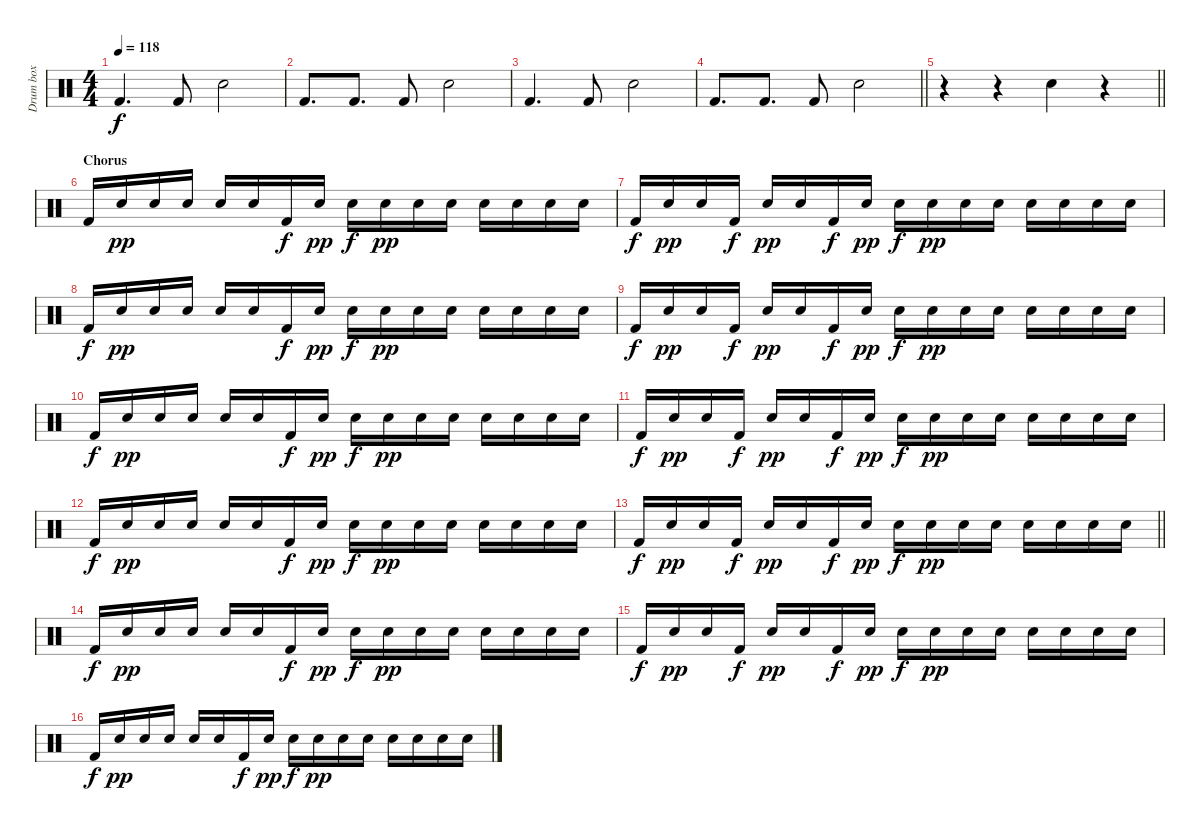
\track ("Drum box" "Drum box") {instrument percussion}
\staff {score}
\articulation defaults
\ts (4 4)
\tempo 118
\clef neutral
\ks c "Kick (hit) 2".4{d dy f} "Kick (hit) 2".8 "Snare (hit) 2".2
|
"Kick (hit) 2".8{d} "Kick (hit) 2".8{d} "Kick (hit) 2".8 "Snare (hit) 2".2 |
"Kick (hit) 2".4{d} "Kick (hit) 2".8 "Snare (hit) 2".2 |
\barLineRight lightlight "Kick (hit) 2".8{d} "Kick (hit) 2".8{d} "Kick (hit) 2".8 "Snare (hit) 2".2
|
\barLineRight lightlight
r.4 r.4 "Snare (hit) 2".4 r.4 |
\section ("" "Chorus")
"Kick (hit) 2".16 "Snare (hit) 2".16{dy pp} "Snare (hit) 2".16 "Snare (hit) 2".16 "Snare (hit) 2".16 "Snare (hit) 2".16 "Kick (hit) 2".16{dy f} "Snare (hit) 2".16{dy pp} "Snare (hit) 2".16{dy f} "Snare (hit) 2".16{dy pp} "Snare (hit) 2".16 "Snare (hit) 2".16 "Snare (hit) 2".16 "Snare (hit) 2".16 "Snare (hit) 2".16 "Snare (hit) 2".16 |
"Kick (hit) 2".16{dy f} "Snare (hit) 2".16{dy pp} "Snare (hit) 2".16 "Kick (hit) 2".16{dy f} "Snare (hit) 2".16{dy pp} "Snare (hit) 2".16 "Kick (hit) 2".16{dy f} "Snare (hit) 2".16{dy pp} "Snare (hit) 2".16{dy f} "Snare (hit) 2".16{dy pp} "Snare (hit) 2".16 "Snare (hit) 2".16 "Snare (hit) 2".16 "Snare (hit) 2".16 "Snare (hit) 2".16 "Snare (hit) 2".16 |
"Kick (hit) 2".16{dy f} "Snare (hit) 2".16{dy pp} "Snare (hit) 2".16 "Snare (hit) 2".16 "Snare (hit) 2".16 "Snare (hit) 2".16 "Kick (hit) 2".16{dy f} "Snare (hit) 2".16{dy pp} "Snare (hit) 2".16{dy f} "Snare (hit) 2".16{dy pp} "Snare (hit) 2".16 "Snare (hit) 2".16 "Snare (hit) 2".16 "Snare (hit) 2".16 "Snare (hit) 2".16 "Snare (hit) 2".16 |
"Kick (hit) 2".16{dy f} "Snare (hit) 2".16{dy pp} "Snare (hit) 2".16 "Kick (hit) 2".16{dy f} "Snare (hit) 2".16{dy pp} "Snare (hit) 2".16 "Kick (hit) 2".16{dy f} "Snare (hit) 2".16{dy pp} "Snare (hit) 2".16{dy f} "Snare (hit) 2".16{dy pp} "Snare (hit) 2".16 "Snare (hit) 2".16 "Snare (hit) 2".16 "Snare (hit) 2".16 "Snare (hit) 2".16 "Snare (hit) 2".16 |
"Kick (hit) 2".16{dy f} "Snare (hit) 2".16{dy pp} "Snare (hit) 2".16 "Snare (hit) 2".16 "Snare (hit) 2".16 "Snare (hit) 2".16 "Kick (hit) 2".16{dy f} "Snare (hit) 2".16{dy pp} "Snare (hit) 2".16{dy f} "Snare (hit) 2".16{dy pp} "Snare (hit) 2".16 "Snare (hit) 2".16 "Snare (hit) 2".16 "Snare (hit) 2".16 "Snare (hit) 2".16 "Snare (hit) 2".16 |
"Kick (hit) 2".16{dy f} "Snare (hit) 2".16{dy pp} "Snare (hit) 2".16 "Kick (hit) 2".16{dy f} "Snare (hit) 2".16{dy pp} "Snare (hit) 2".16 "Kick (hit) 2".16{dy f} "Snare (hit) 2".16{dy pp} "Snare (hit) 2".16{dy f} "Snare (hit) 2".16{dy pp} "Snare (hit) 2".16 "Snare (hit) 2".16 "Snare (hit) 2".16 "Snare (hit) 2".16 "Snare (hit) 2".16 "Snare (hit) 2".16 |
"Kick (hit) 2".16{dy f} "Snare (hit) 2".16{dy pp} "Snare (hit) 2".16 "Snare (hit) 2".16 "Snare (hit) 2".16 "Snare (hit) 2".16 "Kick (hit) 2".16{dy f} "Snare (hit) 2".16{dy pp} "Snare (hit) 2".16{dy f} "Snare (hit) 2".16{dy pp} "Snare (hit) 2".16 "Snare (hit) 2".16 "Snare (hit) 2".16 "Snare (hit) 2".16 "Snare (hit) 2".16 "Snare (hit) 2".16 |
\barLineRight lightlight "Kick (hit) 2".16{dy f} "Snare (hit) 2".16{dy pp} "Snare (hit) 2".16 "Kick (hit) 2".16{dy f} "Snare (hit) 2".16{dy pp} "Snare (hit) 2".16 "Kick (hit) 2".16{dy f} "Snare (hit) 2".16{dy pp} "Snare (hit) 2".16{dy f} "Snare (hit) 2".16{dy pp} "Snare (hit) 2".16 "Snare (hit) 2".16 "Snare (hit) 2".16 "Snare (hit) 2".16 "Snare (hit) 2".16 "Snare (hit) 2".16
|
"Kick (hit) 2".16{dy f} "Snare (hit) 2".16{dy pp} "Snare (hit) 2".16 "Snare (hit) 2".16 "Snare (hit) 2".16 "Snare (hit) 2".16 "Kick (hit) 2".16{dy f} "Snare (hit) 2".16{dy pp} "Snare (hit) 2".16{dy f} "Snare (hit) 2".16{dy pp} "Snare (hit) 2".16 "Snare (hit) 2".16 "Snare (hit) 2".16 "Snare (hit) 2".16 "Snare (hit) 2".16 "Snare (hit) 2".16 |
"Kick (hit) 2".16{dy f} "Snare (hit) 2".16{dy pp} "Snare (hit) 2".16 "Kick (hit) 2".16{dy f} "Snare (hit) 2".16{dy pp} "Snare (hit) 2".16 "Kick (hit) 2".16{dy f} "Snare (hit) 2".16{dy pp} "Snare (hit) 2".16{dy f} "Snare (hit) 2".16{dy pp} "Snare (hit) 2".16 "Snare (hit) 2".16 "Snare (hit) 2".16 "Snare (hit) 2".16 "Snare (hit) 2".16 "Snare (hit) 2".16 |
"Kick (hit) 2".16{dy f} "Snare (hit) 2".16{dy pp} "Snare (hit) 2".16 "Snare (hit) 2".16 "Snare (hit) 2".16 "Snare (hit) 2".16 "Kick (hit) 2".16{dy f} "Snare (hit) 2".16{dy pp} "Snare (hit) 2".16{dy f} "Snare (hit) 2".16{dy pp} "Snare (hit) 2".16 "Snare (hit) 2".16 "Snare (hit) 2".16 "Snare (hit) 2".16 "Snare (hit) 2".16 "Snare (hit) 2".16
